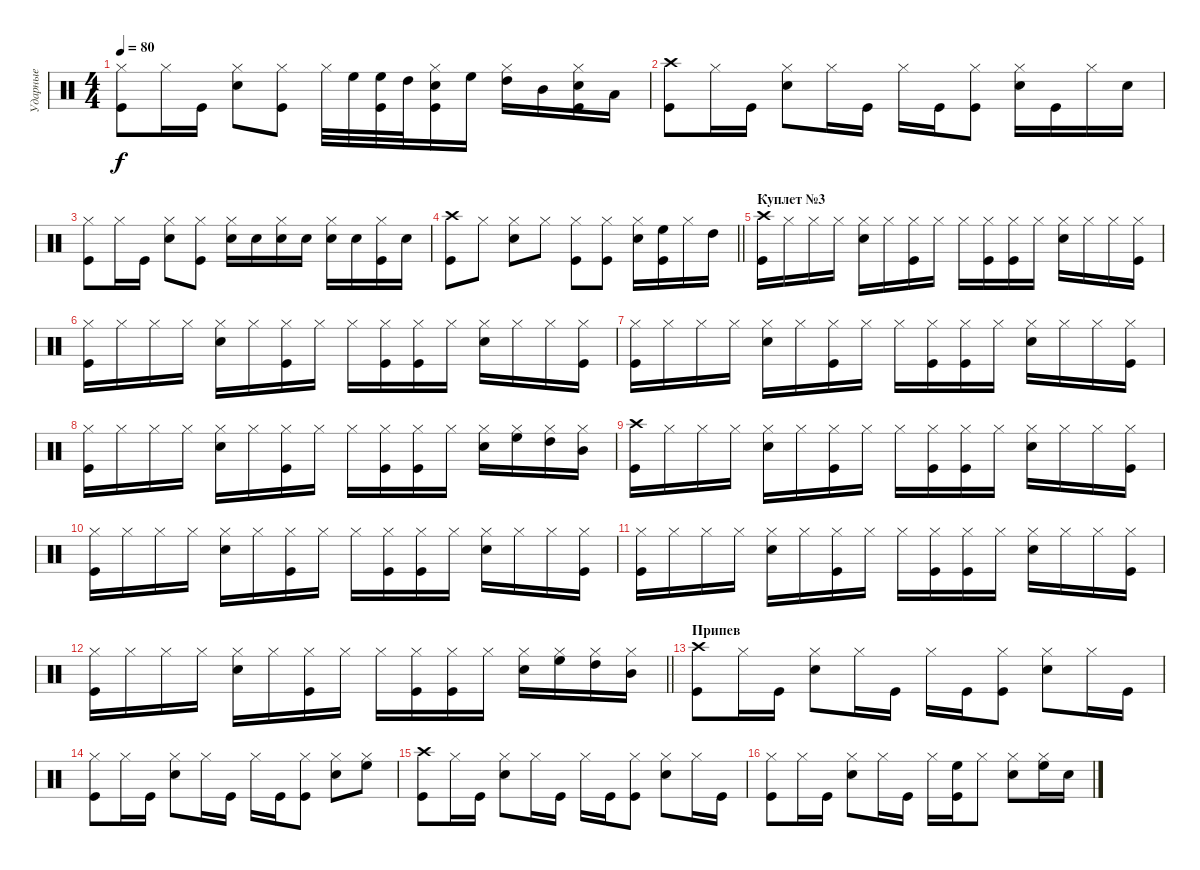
\track ("Ударные" "Ударные") {instrument percussion}
\staff {score}
\articulation defaults
\ts (4 4)
\tempo 80
\clef neutral
\ks c
("Hi-Hat (closed)" "Kick (hit)").8{dy f} "Hi-Hat (closed)".16 "Kick (hit)".16 ("Hi-Hat (closed)" "Snare (hit) 2").8 ("Hi-Hat (closed)" "Kick (hit)").8 "Hi-Hat (closed)".32 "High Floor Tom (hit)".32 ("High Floor Tom (hit)" "Kick (hit)").32 "High Tom (hit)".32 ("Hi-Hat (closed)" "Snare (hit) 2" "Kick (hit)").16 "High Floor Tom (hit)".16 ("Hi-Hat (closed)" "High Tom (hit)").16 "Mid Tom (hit)".16 ("Hi-Hat (closed)" "Snare (hit) 2" "Kick (hit)").16 "Low Tom (hit)".16 |
("Crash high (hit)" "Kick (hit)").8 "Hi-Hat (closed)".16 "Kick (hit)".16 ("Hi-Hat (closed)" "Snare (hit) 2").8 "Hi-Hat (closed)".16 "Kick (hit)".16 "Hi-Hat (closed)".16 "Kick (hit)".16 ("Hi-Hat (closed)" "Kick (hit)").8 ("Hi-Hat (closed)" "Snare (hit) 2").16 "Kick (hit)".16 "Hi-Hat (closed)".16 "Snare (hit) 2".16 |
("Hi-Hat (closed)" "Kick (hit)").8 "Hi-Hat (closed)".16 "Kick (hit)".16 ("Hi-Hat (closed)" "Snare (hit) 2").8 ("Hi-Hat (closed)" "Kick (hit)").8 ("Hi-Hat (closed)" "Snare (hit) 2").16 "Snare (hit) 2".16 ("Hi-Hat (closed)" "Snare (hit) 2").16 "Snare (hit) 2".16 ("Hi-Hat (closed)" "Snare (hit) 2").16 "Snare (hit) 2".16 ("Hi-Hat (closed)" "Kick (hit)").16 "Snare (hit) 2".16 |
\barLineRight lightlight
("Crash high (hit)" "Kick (hit)").8 "Hi-Hat (closed)".8 ("Hi-Hat (closed)" "Snare (hit) 2").8 "Hi-Hat (closed)".8 ("Hi-Hat (closed)" "Kick (hit)").8 ("Hi-Hat (closed)" "Kick (hit)").8 ("Hi-Hat (closed)" "Snare (hit) 2").16 ("High Floor Tom (hit)" "Kick (hit)").16 "Hi-Hat (closed)".16 "High Tom (hit)".16 |
\section ("" "Куплет №3")
("Crash high (hit)" "Kick (hit)").16 "Hi-Hat (closed)".16 "Hi-Hat (closed)".16 "Hi-Hat (closed)".16 ("Hi-Hat (closed)" "Snare (hit) 2").16 "Hi-Hat (closed)".16 ("Hi-Hat (closed)" "Kick (hit)").16 "Hi-Hat (closed)".16 "Hi-Hat (closed)".16 ("Hi-Hat (closed)" "Kick (hit)").16 ("Hi-Hat (closed)" "Kick (hit)").16 "Hi-Hat (closed)".16 ("Hi-Hat (closed)" "Snare (hit) 2").16 "Hi-Hat (closed)".16 "Hi-Hat (closed)".16 ("Hi-Hat (closed)" "Kick (hit)").16 |
("Hi-Hat (closed)" "Kick (hit)").16 "Hi-Hat (closed)".16 "Hi-Hat (closed)".16 "Hi-Hat (closed)".16 ("Hi-Hat (closed)" "Snare (hit) 2").16 "Hi-Hat (closed)".16 ("Hi-Hat (closed)" "Kick (hit)").16 "Hi-Hat (closed)".16 "Hi-Hat (closed)".16 ("Hi-Hat (closed)" "Kick (hit)").16 ("Hi-Hat (closed)" "Kick (hit)").16 "Hi-Hat (closed)".16 ("Hi-Hat (closed)" "Snare (hit) 2").16 "Hi-Hat (closed)".16 "Hi-Hat (closed)".16 ("Hi-Hat (closed)" "Kick (hit)").16 |
("Hi-Hat (closed)" "Kick (hit)").16 "Hi-Hat (closed)".16 "Hi-Hat (closed)".16 "Hi-Hat (closed)".16 ("Hi-Hat (closed)" "Snare (hit) 2").16 "Hi-Hat (closed)".16 ("Hi-Hat (closed)" "Kick (hit)").16 "Hi-Hat (closed)".16 "Hi-Hat (closed)".16 ("Hi-Hat (closed)" "Kick (hit)").16 ("Hi-Hat (closed)" "Kick (hit)").16 "Hi-Hat (closed)".16 ("Hi-Hat (closed)" "Snare (hit) 2").16 "Hi-Hat (closed)".16 "Hi-Hat (closed)".16 ("Hi-Hat (closed)" "Kick (hit)").16 |
("Hi-Hat (closed)" "Kick (hit)").16 "Hi-Hat (closed)".16 "Hi-Hat (closed)".16 "Hi-Hat (closed)".16 ("Hi-Hat (closed)" "Snare (hit) 2").16 "Hi-Hat (closed)".16 ("Hi-Hat (closed)" "Kick (hit)").16 "Hi-Hat (closed)".16 "Hi-Hat (closed)".16 ("Hi-Hat (closed)" "Kick (hit)").16 ("Hi-Hat (closed)" "Kick (hit)").16 "Hi-Hat (closed)".16 ("Hi-Hat (closed)" "Snare (hit) 2").16 ("Hi-Hat (closed)" "High Floor Tom (hit)").16 ("Hi-Hat (closed)" "High Tom (hit)").16 ("Hi-Hat (closed)" "Mid Tom (hit)").16 |
("Crash high (hit)" "Kick (hit)").16 "Hi-Hat (closed)".16 "Hi-Hat (closed)".16 "Hi-Hat (closed)".16 ("Hi-Hat (closed)" "Snare (hit) 2").16 "Hi-Hat (closed)".16 ("Hi-Hat (closed)" "Kick (hit)").16 "Hi-Hat (closed)".16 "Hi-Hat (closed)".16 ("Hi-Hat (closed)" "Kick (hit)").16 ("Hi-Hat (closed)" "Kick (hit)").16 "Hi-Hat (closed)".16 ("Hi-Hat (closed)" "Snare (hit) 2").16 "Hi-Hat (closed)".16 "Hi-Hat (closed)".16 ("Hi-Hat (closed)" "Kick (hit)").16 |
("Hi-Hat (closed)" "Kick (hit)").16 "Hi-Hat (closed)".16 "Hi-Hat (closed)".16 "Hi-Hat (closed)".16 ("Hi-Hat (closed)" "Snare (hit) 2").16 "Hi-Hat (closed)".16 ("Hi-Hat (closed)" "Kick (hit)").16 "Hi-Hat (closed)".16 "Hi-Hat (closed)".16 ("Hi-Hat (closed)" "Kick (hit)").16 ("Hi-Hat (closed)" "Kick (hit)").16 "Hi-Hat (closed)".16 ("Hi-Hat (closed)" "Snare (hit) 2").16 "Hi-Hat (closed)".16 "Hi-Hat (closed)".16 ("Hi-Hat (closed)" "Kick (hit)").16 |
("Hi-Hat (closed)" "Kick (hit)").16 "Hi-Hat (closed)".16 "Hi-Hat (closed)".16 "Hi-Hat (closed)".16 ("Hi-Hat (closed)" "Snare (hit) 2").16 "Hi-Hat (closed)".16 ("Hi-Hat (closed)" "Kick (hit)").16 "Hi-Hat (closed)".16 "Hi-Hat (closed)".16 ("Hi-Hat (closed)" "Kick (hit)").16 ("Hi-Hat (closed)" "Kick (hit)").16 "Hi-Hat (closed)".16 ("Hi-Hat (closed)" "Snare (hit) 2").16 "Hi-Hat (closed)".16 "Hi-Hat (closed)".16 ("Hi-Hat (closed)" "Kick (hit)").16 |
\barLineRight lightlight
("Hi-Hat (closed)" "Kick (hit)").16 "Hi-Hat (closed)".16 "Hi-Hat (closed)".16 "Hi-Hat (closed)".16 ("Hi-Hat (closed)" "Snare (hit) 2").16 "Hi-Hat (closed)".16 ("Hi-Hat (closed)" "Kick (hit)").16 "Hi-Hat (closed)".16 "Hi-Hat (closed)".16 ("Hi-Hat (closed)" "Kick (hit)").16 ("Hi-Hat (closed)" "Kick (hit)").16 "Hi-Hat (closed)".16 ("Hi-Hat (closed)" "Snare (hit) 2").16 ("Hi-Hat (closed)" "High Floor Tom (hit)").16 ("Hi-Hat (closed)" "High Tom (hit)").16 ("Hi-Hat (closed)" "Mid Tom (hit)").16 |
\section ("" "Припев")
("Crash high (hit)" "Kick (hit)").8 "Hi-Hat (closed)".16 "Kick (hit)".16 ("Hi-Hat (closed)" "Snare (hit) 2").8 "Hi-Hat (closed)".16 "Kick (hit)".16 "Hi-Hat (closed)".16 "Kick (hit)".16 ("Hi-Hat (closed)" "Kick (hit)").8 ("Hi-Hat (closed)" "Snare (hit) 2").8 "Hi-Hat (closed)".16 "Kick (hit)".16 |
("Hi-Hat (closed)" "Kick (hit)").8 "Hi-Hat (closed)".16 "Kick (hit)".16 ("Hi-Hat (closed)" "Snare (hit) 2").8 "Hi-Hat (closed)".16 "Kick (hit)".16 "Hi-Hat (closed)".16 "Kick (hit)".16 ("Hi-Hat (closed)" "Kick (hit)").8 ("Hi-Hat (closed)" "Snare (hit) 2").8 ("Hi-Hat (closed)" "High Floor Tom (hit)").8 |
("Crash high (hit)" "Kick (hit)").8 "Hi-Hat (closed)".16 "Kick (hit)".16 ("Hi-Hat (closed)" "Snare (hit) 2").8 "Hi-Hat (closed)".16 "Kick (hit)".16 "Hi-Hat (closed)".16 "Kick (hit)".16 ("Hi-Hat (closed)" "Kick (hit)").8 ("Hi-Hat (closed)" "Snare (hit) 2").8 "Hi-Hat (closed)".16 "Kick (hit)".16 |
("Hi-Hat (closed)" "Kick (hit)").8 "Hi-Hat (closed)".16 "Kick (hit)".16 ("Hi-Hat (closed)" "Snare (hit) 2").8 "Hi-Hat (closed)".16 "Kick (hit)".16 "Hi-Hat (closed)".16 ("High Floor Tom (hit)" "Kick (hit)").16 "Hi-Hat (closed)".8 ("Hi-Hat (closed)" "Snare (hit) 2").8 ("Hi-Hat (closed)" "High Floor Tom (hit)").16 "Snare (hit) 2".16
